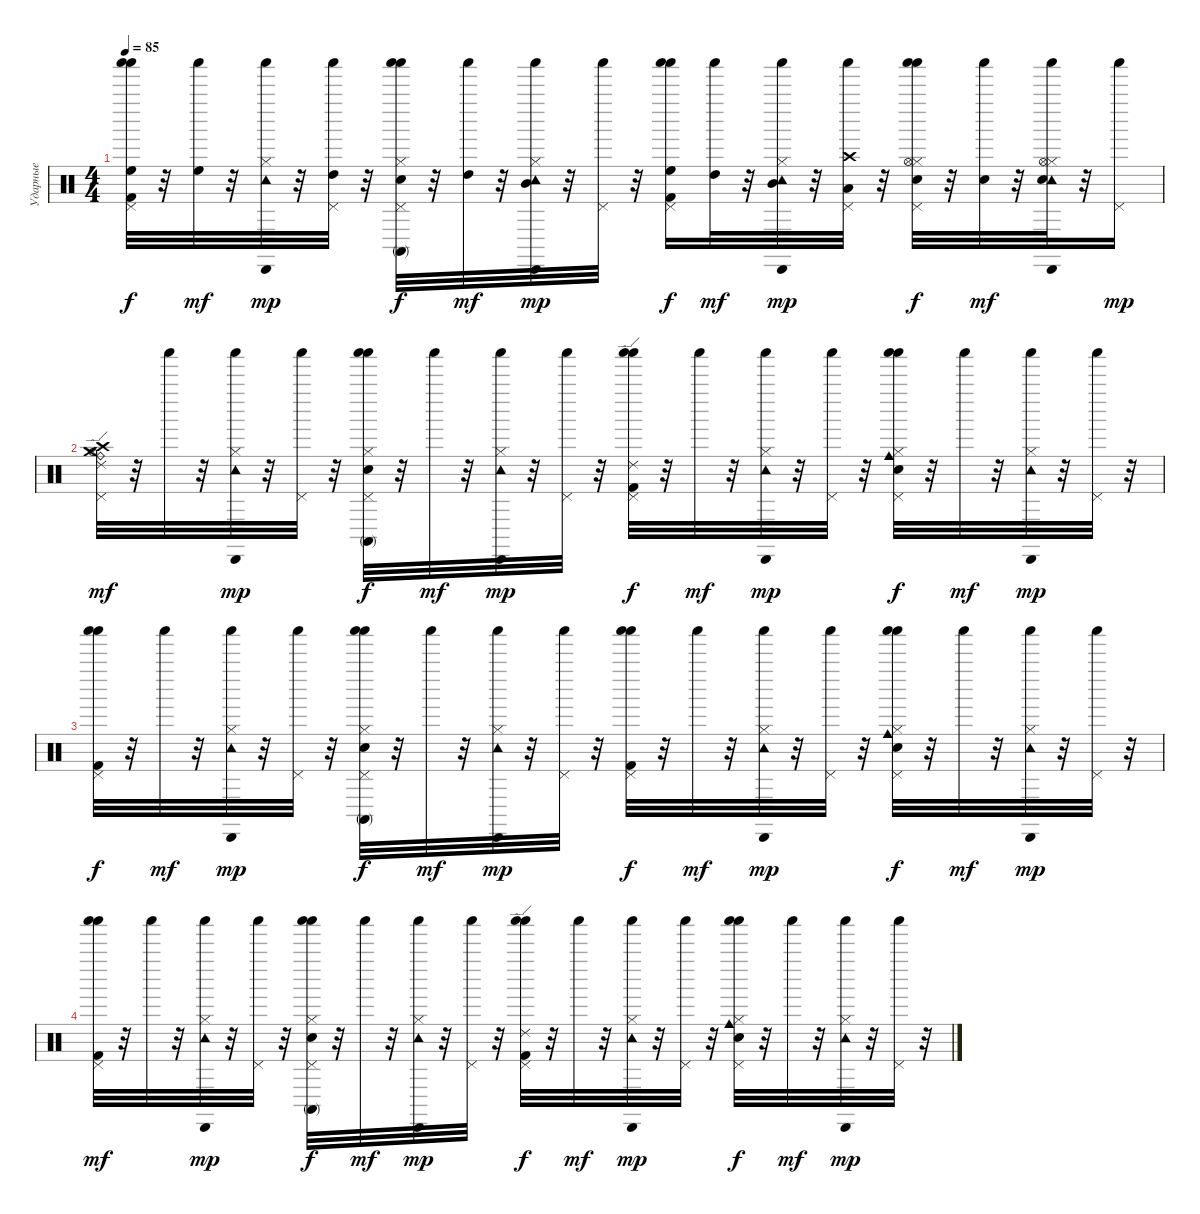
\track ("Ударные" "Ударные") {instrument percussion}
\staff {score}
\articulation defaults
\ts (4 4)
\tempo 85
\clef neutral
\ks c
("High Floor Tom (hit)" "Pedal Hi-Hat (hit)" "Shaker (hit)" "Shaker (hit)" "Kick (hit) 2").32{dy f} r.32 ("High Floor Tom (hit)" "Shaker (hit)").32{dy mf} r.32 ("Hi-Hat (closed)" "Cabasa (hit)" "Shaker (hit)" "Tambourine (hit)").32{dy mp} r.32 ("High Tom (hit)" "Pedal Hi-Hat (hit)" "Shaker (hit)").32 r.32 ("Hi-Hat (closed)" "Conga high (mute)" "Pedal Hi-Hat (hit)" "Shaker (hit)" "Shaker (hit)" "Snare (hit) 2").32{dy f} r.32 ("High Tom (hit)" "Shaker (hit)").32{dy mf} r.32 ("Mid Tom (hit)" "Hi-Hat (closed)" "Cabasa (hit)" "Shaker (hit)" "Tambourine (hit)").32{dy mp} r.32 ("Pedal Hi-Hat (hit)" "Shaker (hit)").32 r.32 ("High Floor Tom (hit)" "Pedal Hi-Hat (hit)" "Shaker (hit)" "Shaker (hit)" "Kick (hit) 2").16{dy f} ("High Tom (hit)" "Shaker (hit)").32{dy mf} r.32 ("Mid Tom (hit)" "Hi-Hat (closed)" "Cabasa (hit)" "Shaker (hit)" "Tambourine (hit)").32{dy mp} r.32 ("Crash high (hit)" "Pedal Hi-Hat (hit)" "Shaker (hit)" "Low Tom (hit)").32 r.32 ("Hi-Hat (closed)" "Hi-Hat (open)" "Pedal Hi-Hat (hit)" "Shaker (hit)" "Shaker (hit)" "Snare (hit) 2").32{dy f volume 11} r.32 ("Shaker (hit)" "Snare (hit) 2").32{dy mf} r.32 ("Hi-Hat (closed)" "Hi-Hat (open)" "Cabasa (hit)" "Shaker (hit)" "Tambourine (hit)" "Snare (hit) 2").32 r.32 ("Pedal Hi-Hat (hit)" "Shaker (hit)").16{dy mp} |
("Ride (bell)" "Hi-Hat (open)" "Crash high (hit)" "Ride (edge) 2" "Crash medium (hit)" "Pedal Hi-Hat (hit)").32{dy mf} r.32 "Shaker (hit)".32 r.32 ("Hi-Hat (closed)" "Cabasa (hit)" "Shaker (hit)" "Tambourine (hit)").32{dy mp} r.32 ("Pedal Hi-Hat (hit)" "Shaker (hit)").32 r.32 ("Hi-Hat (closed)" "Conga high (mute)" "Pedal Hi-Hat (hit)" "Shaker (hit)" "Shaker (hit)" "Snare (hit) 2").32{dy f} r.32 "Shaker (hit)".32{dy mf} r.32 ("Hi-Hat (closed)" "Cabasa (hit)" "Shaker (hit)" "Tambourine (hit)").32{dy mp} r.32 ("Pedal Hi-Hat (hit)" "Shaker (hit)").32 r.32 ("Ride (edge) 2" "Pedal Hi-Hat (hit)" "Shaker (hit)" "Shaker (hit)" "Kick (hit) 2").32{dy f} r.32 "Shaker (hit)".32{dy mf} r.32 ("Hi-Hat (closed)" "Cabasa (hit)" "Shaker (hit)" "Tambourine (hit)").32{dy mp} r.32 ("Pedal Hi-Hat (hit)" "Shaker (hit)").32 r.32 ("Cowbell medium (hit)" "Hi-Hat (closed)" "Pedal Hi-Hat (hit)" "Shaker (hit)" "Shaker (hit)" "Snare (hit) 2").32{dy f} r.32 "Shaker (hit)".32{dy mf} r.32 ("Hi-Hat (closed)" "Cabasa (hit)" "Shaker (hit)" "Tambourine (hit)").32{dy mp} r.32 ("Pedal Hi-Hat (hit)" "Shaker (hit)").32 r.32 |
("Pedal Hi-Hat (hit)" "Shaker (hit)" "Shaker (hit)" "Kick (hit) 2").32{dy f} r.32 "Shaker (hit)".32{dy mf} r.32 ("Hi-Hat (closed)" "Cabasa (hit)" "Shaker (hit)" "Tambourine (hit)").32{dy mp} r.32 ("Pedal Hi-Hat (hit)" "Shaker (hit)").32 r.32 ("Hi-Hat (closed)" "Conga high (mute)" "Pedal Hi-Hat (hit)" "Shaker (hit)" "Shaker (hit)" "Snare (hit) 2").32{dy f} r.32 "Shaker (hit)".32{dy mf} r.32 ("Hi-Hat (closed)" "Cabasa (hit)" "Shaker (hit)" "Tambourine (hit)").32{dy mp} r.32 ("Pedal Hi-Hat (hit)" "Shaker (hit)").32 r.32 ("Pedal Hi-Hat (hit)" "Shaker (hit)" "Shaker (hit)" "Kick (hit) 2").32{dy f} r.32 "Shaker (hit)".32{dy mf} r.32 ("Hi-Hat (closed)" "Cabasa (hit)" "Shaker (hit)" "Tambourine (hit)").32{dy mp} r.32 ("Pedal Hi-Hat (hit)" "Shaker (hit)").32 r.32 ("Cowbell medium (hit)" "Hi-Hat (closed)" "Pedal Hi-Hat (hit)" "Shaker (hit)" "Shaker (hit)" "Snare (hit) 2").32{dy f} r.32 "Shaker (hit)".32{dy mf} r.32 ("Hi-Hat (closed)" "Cabasa (hit)" "Shaker (hit)" "Tambourine (hit)").32{dy mp} r.32 ("Pedal Hi-Hat (hit)" "Shaker (hit)").32 r.32 |
("Pedal Hi-Hat (hit)" "Shaker (hit)" "Shaker (hit)" "Kick (hit) 2").32{dy mf} r.32 "Shaker (hit)".32 r.32 ("Hi-Hat (closed)" "Cabasa (hit)" "Shaker (hit)" "Tambourine (hit)").32{dy mp} r.32 ("Pedal Hi-Hat (hit)" "Shaker (hit)").32 r.32 ("Hi-Hat (closed)" "Conga high (mute)" "Pedal Hi-Hat (hit)" "Shaker (hit)" "Shaker (hit)" "Snare (hit) 2").32{dy f} r.32 "Shaker (hit)".32{dy mf} r.32 ("Hi-Hat (closed)" "Cabasa (hit)" "Shaker (hit)" "Tambourine (hit)").32{dy mp} r.32 ("Pedal Hi-Hat (hit)" "Shaker (hit)").32 r.32 ("Ride (edge) 2" "Pedal Hi-Hat (hit)" "Shaker (hit)" "Shaker (hit)" "Kick (hit) 2").32{dy f} r.32 "Shaker (hit)".32{dy mf} r.32 ("Hi-Hat (closed)" "Cabasa (hit)" "Shaker (hit)" "Tambourine (hit)").32{dy mp} r.32 ("Pedal Hi-Hat (hit)" "Shaker (hit)").32 r.32 ("Cowbell medium (hit)" "Hi-Hat (closed)" "Pedal Hi-Hat (hit)" "Shaker (hit)" "Shaker (hit)" "Snare (hit) 2").32{dy f} r.32 "Shaker (hit)".32{dy mf} r.32 ("Hi-Hat (closed)" "Cabasa (hit)" "Shaker (hit)" "Tambourine (hit)").32{dy mp} r.32 ("Pedal Hi-Hat (hit)" "Shaker (hit)").32 r.32
